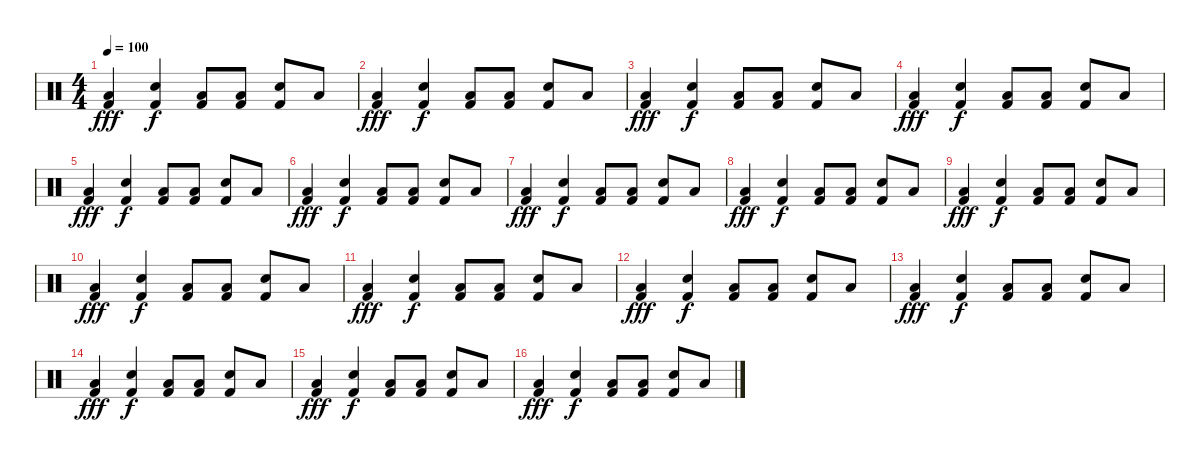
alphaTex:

\track "" {instrument percussion}
\staff {score}
\articulation defaults
\ts (4 4)
\tempo 100
\clef neutral
\ks c
("Kick (hit) 2" "Low Tom (hit)").4{dy fff} ("Electric Snare (hit)" "Kick (hit) 2").4{dy f} ("Kick (hit) 2" "Low Tom (hit)").8 ("Kick (hit) 2" "Low Tom (hit)").8 ("Kick (hit) 2" "Electric Snare (hit)").8 "Low Tom (hit)".8 |
("Kick (hit) 2" "Low Tom (hit)").4{dy fff} ("Electric Snare (hit)" "Kick (hit) 2").4{dy f} ("Kick (hit) 2" "Low Tom (hit)").8 ("Kick (hit) 2" "Low Tom (hit)").8 ("Kick (hit) 2" "Electric Snare (hit)").8 "Low Tom (hit)".8 |
("Kick (hit) 2" "Low Tom (hit)").4{dy fff} ("Electric Snare (hit)" "Kick (hit) 2").4{dy f} ("Kick (hit) 2" "Low Tom (hit)").8 ("Kick (hit) 2" "Low Tom (hit)").8 ("Kick (hit) 2" "Electric Snare (hit)").8 "Low Tom (hit)".8 |
("Kick (hit) 2" "Low Tom (hit)").4{dy fff} ("Electric Snare (hit)" "Kick (hit) 2").4{dy f} ("Kick (hit) 2" "Low Tom (hit)").8 ("Kick (hit) 2" "Low Tom (hit)").8 ("Kick (hit) 2" "Electric Snare (hit)").8 "Low Tom (hit)".8 |
("Kick (hit) 2" "Low Tom (hit)").4{dy fff} ("Electric Snare (hit)" "Kick (hit) 2").4{dy f} ("Kick (hit) 2" "Low Tom (hit)").8 ("Kick (hit) 2" "Low Tom (hit)").8 ("Kick (hit) 2" "Electric Snare (hit)").8 "Low Tom (hit)".8 |
("Kick (hit) 2" "Low Tom (hit)").4{dy fff} ("Electric Snare (hit)" "Kick (hit) 2").4{dy f} ("Kick (hit) 2" "Low Tom (hit)").8 ("Kick (hit) 2" "Low Tom (hit)").8 ("Kick (hit) 2" "Electric Snare (hit)").8 "Low Tom (hit)".8 |
("Kick (hit) 2" "Low Tom (hit)").4{dy fff} ("Electric Snare (hit)" "Kick (hit) 2").4{dy f} ("Kick (hit) 2" "Low Tom (hit)").8 ("Kick (hit) 2" "Low Tom (hit)").8 ("Kick (hit) 2" "Electric Snare (hit)").8 "Low Tom (hit)".8 |
("Kick (hit) 2" "Low Tom (hit)").4{dy fff} ("Electric Snare (hit)" "Kick (hit) 2").4{dy f} ("Kick (hit) 2" "Low Tom (hit)").8 ("Kick (hit) 2" "Low Tom (hit)").8 ("Kick (hit) 2" "Electric Snare (hit)").8 "Low Tom (hit)".8 |
("Kick (hit) 2" "Low Tom (hit)").4{dy fff} ("Electric Snare (hit)" "Kick (hit) 2").4{dy f} ("Kick (hit) 2" "Low Tom (hit)").8 ("Kick (hit) 2" "Low Tom (hit)").8 ("Kick (hit) 2" "Electric Snare (hit)").8 "Low Tom (hit)".8 |
("Kick (hit) 2" "Low Tom (hit)").4{dy fff} ("Electric Snare (hit)" "Kick (hit) 2").4{dy f} ("Kick (hit) 2" "Low Tom (hit)").8 ("Kick (hit) 2" "Low Tom (hit)").8 ("Kick (hit) 2" "Electric Snare (hit)").8 "Low Tom (hit)".8 |
("Kick (hit) 2" "Low Tom (hit)").4{dy fff} ("Electric Snare (hit)" "Kick (hit) 2").4{dy f} ("Kick (hit) 2" "Low Tom (hit)").8 ("Kick (hit) 2" "Low Tom (hit)").8 ("Kick (hit) 2" "Electric Snare (hit)").8 "Low Tom (hit)".8 |
("Kick (hit) 2" "Low Tom (hit)").4{dy fff} ("Electric Snare (hit)" "Kick (hit) 2").4{dy f} ("Kick (hit) 2" "Low Tom (hit)").8 ("Kick (hit) 2" "Low Tom (hit)").8 ("Kick (hit) 2" "Electric Snare (hit)").8 "Low Tom (hit)".8 |
("Kick (hit) 2" "Low Tom (hit)").4{dy fff} ("Electric Snare (hit)" "Kick (hit) 2").4{dy f} ("Kick (hit) 2" "Low Tom (hit)").8 ("Kick (hit) 2" "Low Tom (hit)").8 ("Kick (hit) 2" "Electric Snare (hit)").8 "Low Tom (hit)".8 |
("Kick (hit) 2" "Low Tom (hit)").4{dy fff} ("Electric Snare (hit)" "Kick (hit) 2").4{dy f} ("Kick (hit) 2" "Low Tom (hit)").8 ("Kick (hit) 2" "Low Tom (hit)").8 ("Kick (hit) 2" "Electric Snare (hit)").8 "Low Tom (hit)".8 |
("Kick (hit) 2" "Low Tom (hit)").4{dy fff} ("Electric Snare (hit)" "Kick (hit) 2").4{dy f} ("Kick (hit) 2" "Low Tom (hit)").8 ("Kick (hit) 2" "Low Tom (hit)").8 ("Kick (hit) 2" "Electric Snare (hit)").8 "Low Tom (hit)".8 |
("Kick (hit) 2" "Low Tom (hit)").4{dy fff} ("Electric Snare (hit)" "Kick (hit) 2").4{dy f} ("Kick (hit) 2" "Low Tom (hit)").8 ("Kick (hit) 2" "Low Tom (hit)").8 ("Kick (hit) 2" "Electric Snare (hit)").8 "Low Tom (hit)".8
